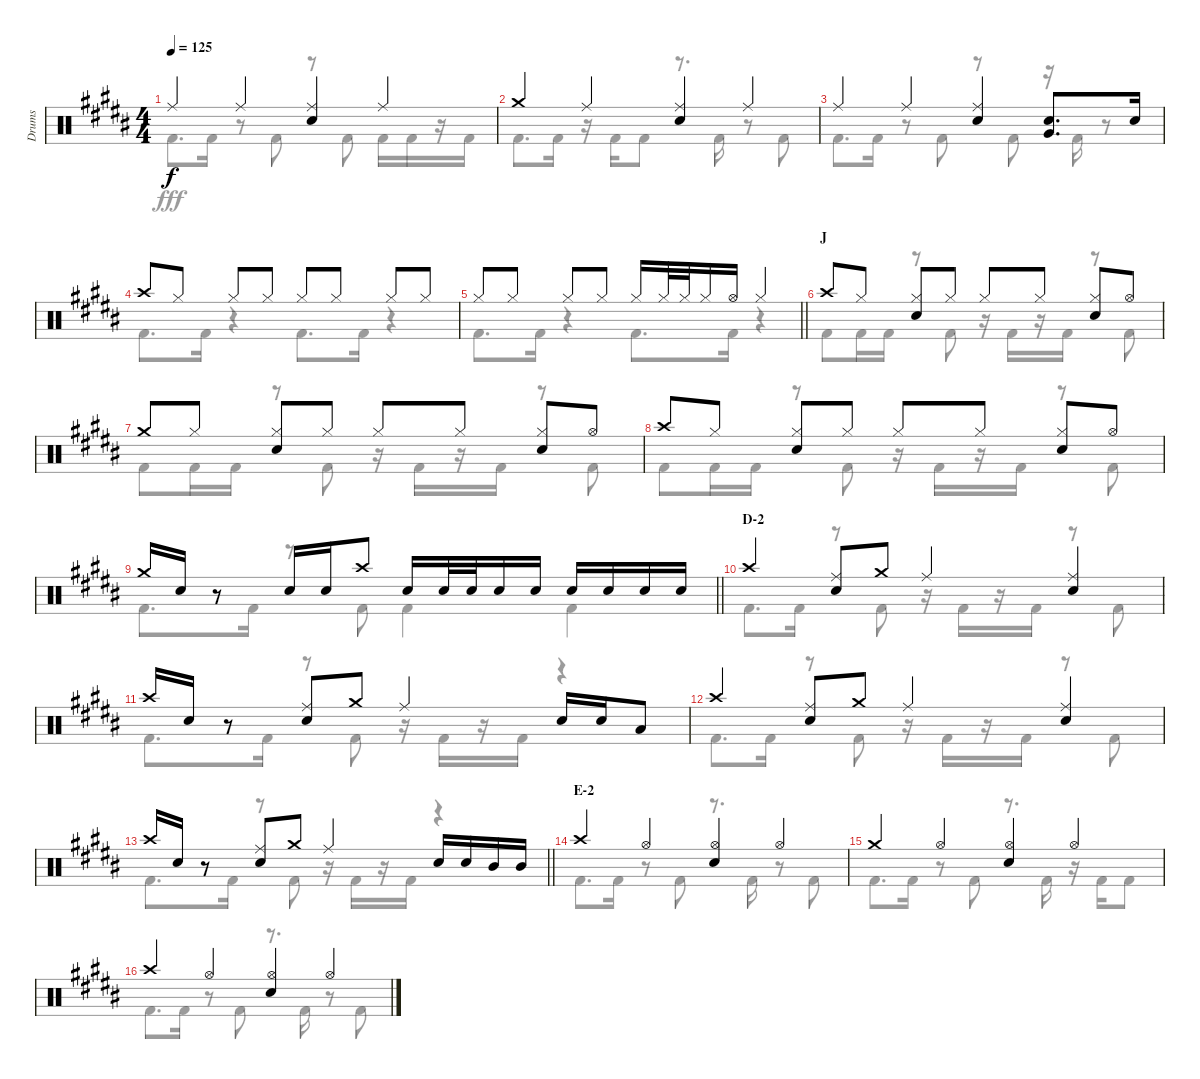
\track ("Drums" "Drums") {instrument percussion}
\staff {score}
\articulation defaults
\voice
\ts (4 4)
\tempo 125
\clef neutral
\ks b "Ride (middle)".4{dy f} "Ride (middle)".4
("Ride (middle)" "Snare (hit) 2").4 "Ride (middle)".4 |
"Crash medium (hit)".4 "Ride (middle)".4 ("Ride (middle)" "Snare (hit) 2").4 "Ride (middle)".4 |
"Ride (middle)".4 "Ride (middle)".4 ("Ride (middle)" "Snare (hit) 2").4 ("Snare (hit) 2" "Very Low Tom (hit)").8{d} "Snare (hit) 2".16 |
"Crash high (hit)".8 "Hi-Hat (closed)".8 "Hi-Hat (closed)".8 "Hi-Hat (closed)".8 "Hi-Hat (closed)".8 "Hi-Hat (closed)".8 "Hi-Hat (closed)".8 "Hi-Hat (closed)".8 |
\barLineRight lightlight "Hi-Hat (closed)".8 "Hi-Hat (closed)".8 "Hi-Hat (closed)".8 "Hi-Hat (closed)".8 "Hi-Hat (closed)".16 "Hi-Hat (closed)".32 "Hi-Hat (closed)".32 "Hi-Hat (closed)".16 "Hi-Hat (open)".16 "Hi-Hat (closed)".4
|
\section ("" "J")
"Crash high (hit)".8 "Hi-Hat (closed)".8 ("Hi-Hat (closed)" "Snare (hit) 2").8 "Hi-Hat (closed)".8 "Hi-Hat (closed)".8 "Hi-Hat (closed)".8 ("Hi-Hat (closed)" "Snare (hit) 2").8 "Hi-Hat (open)".8 |
"Crash medium (hit)".8 "Hi-Hat (closed)".8 ("Hi-Hat (closed)" "Snare (hit) 2").8 "Hi-Hat (closed)".8 "Hi-Hat (closed)".8 "Hi-Hat (closed)".8 ("Hi-Hat (closed)" "Snare (hit) 2").8 "Hi-Hat (open)".8 |
"Crash high (hit)".8 "Hi-Hat (closed)".8 ("Hi-Hat (closed)" "Snare (hit) 2").8 "Hi-Hat (closed)".8 "Hi-Hat (closed)".8 "Hi-Hat (closed)".8 ("Hi-Hat (closed)" "Snare (hit) 2").8 "Hi-Hat (open)".8 |
\barLineRight lightlight "Crash medium (hit)".16 "Snare (hit) 2".16
r.8 "Snare (hit) 2".16 "Snare (hit) 2".16 "Crash high (hit)".8 "Snare (hit) 2".16 "Snare (hit) 2".32 "Snare (hit) 2".32 "Snare (hit) 2".16 "Snare (hit) 2".16 "Snare (hit) 2".16 "Snare (hit) 2".16 "Snare (hit) 2".16 "Snare (hit) 2".16 |
\section ("" "D-2")
"Crash high (hit)".4 ("Ride (middle)" "Snare (hit) 2").8 "Crash medium (hit)".8 "Ride (middle)".4 ("Ride (middle)" "Snare (hit) 2").4 |
"Crash high (hit)".16 "Snare (hit) 2".16 r.8 ("Ride (middle)" "Snare (hit) 2").8 "Crash medium (hit)".8 "Ride (middle)".4 "Snare (hit) 2".16 "Snare (hit) 2".16 "Low Tom (hit)".8 |
"Crash high (hit)".4 ("Ride (middle)" "Snare (hit) 2").8 "Crash medium (hit)".8 "Ride (middle)".4 ("Ride (middle)" "Snare (hit) 2").4 |
\barLineRight lightlight "Crash high (hit)".16 "Snare (hit) 2".16
r.8 ("Ride (middle)" "Snare (hit) 2").8 "Crash medium (hit)".8 "Ride (middle)".4 "Snare (hit) 2".16 "Snare (hit) 2".16 "Mid Tom (hit)".16 "Mid Tom (hit)".16 |
\section ("" "E-2")
"Crash high (hit)".4 "Hi-Hat (open)".4 ("Hi-Hat (open)" "Snare (hit) 2").4 "Hi-Hat (open)".4 |
"Crash medium (hit)".4 "Hi-Hat (open)".4 ("Hi-Hat (open)" "Snare (hit) 2").4 "Hi-Hat (open)".4 |
"Crash high (hit)".4 "Hi-Hat (open)".4 ("Hi-Hat (open)" "Snare (hit) 2").4 "Hi-Hat (open)".4
\voice
\clef neutral
\ottava regular
\simile none
\ks b "Kick (hit) 2".8{d dy fff} "Kick (hit) 2".16
r.8 "Kick (hit) 2".8 r.8 "Kick (hit) 2".8 "Kick (hit) 2".16 "Kick (hit) 2".16 r.16 "Kick (hit) 2".16 |
"Kick (hit) 2".8{d} "Kick (hit) 2".16 r.16 "Kick (hit) 2".16 "Kick (hit) 2".8 r.8{d} "Kick (hit) 2".16 r.8 "Kick (hit) 2".8 |
"Kick (hit) 2".8{d} "Kick (hit) 2".16 r.8 "Kick (hit) 2".8 r.8 "Kick (hit) 2".8 r.16 "Kick (hit) 2".16 r.8 |
"Kick (hit) 2".8{d} "Kick (hit) 2".16 r.4 "Kick (hit) 2".8{d} "Kick (hit) 2".16 r.4 |
\barLineRight lightlight "Kick (hit) 2".8{d} "Kick (hit) 2".16
r.4 "Kick (hit) 2".8{d} "Kick (hit) 2".16 r.4 |
"Kick (hit) 2".8 "Kick (hit) 2".16 "Kick (hit) 2".16 r.8 "Kick (hit) 2".8 r.16 "Kick (hit) 2".16 r.16 "Kick (hit) 2".16 r.8 "Kick (hit) 2".8 |
"Kick (hit) 2".8 "Kick (hit) 2".16 "Kick (hit) 2".16 r.8 "Kick (hit) 2".8 r.16 "Kick (hit) 2".16 r.16 "Kick (hit) 2".16 r.8 "Kick (hit) 2".8 |
"Kick (hit) 2".8 "Kick (hit) 2".16 "Kick (hit) 2".16 r.8 "Kick (hit) 2".8 r.16 "Kick (hit) 2".16 r.16 "Kick (hit) 2".16 r.8 "Kick (hit) 2".8 |
\barLineRight lightlight "Kick (hit) 2".8{d} "Kick (hit) 2".16
r.8 "Kick (hit) 2".8 "Kick (hit) 2".4 "Kick (hit) 2".4 |
"Kick (hit) 2".8{d} "Kick (hit) 2".16 r.8 "Kick (hit) 2".8 r.16 "Kick (hit) 2".16 r.16 "Kick (hit) 2".16 r.8 "Kick (hit) 2".8 |
"Kick (hit) 2".8{d} "Kick (hit) 2".16 r.8 "Kick (hit) 2".8 r.16 "Kick (hit) 2".16 r.16 "Kick (hit) 2".16 r.4 |
"Kick (hit) 2".8{d} "Kick (hit) 2".16 r.8 "Kick (hit) 2".8 r.16 "Kick (hit) 2".16 r.16 "Kick (hit) 2".16 r.8 "Kick (hit) 2".8 |
\barLineRight lightlight "Kick (hit) 2".8{d} "Kick (hit) 2".16
r.8 "Kick (hit) 2".8 r.16 "Kick (hit) 2".16 r.16 "Kick (hit) 2".16 r.4 |
"Kick (hit) 2".8{d} "Kick (hit) 2".16 r.8 "Kick (hit) 2".8 r.8{d} "Kick (hit) 2".16 r.8 "Kick (hit) 2".8 |
"Kick (hit) 2".8{d} "Kick (hit) 2".16 r.8 "Kick (hit) 2".8 r.8{d} "Kick (hit) 2".16 r.16 "Kick (hit) 2".16 "Kick (hit) 2".8 |
"Kick (hit) 2".8{d} "Kick (hit) 2".16 r.8 "Kick (hit) 2".8 r.8{d} "Kick (hit) 2".16 r.8 "Kick (hit) 2".8
